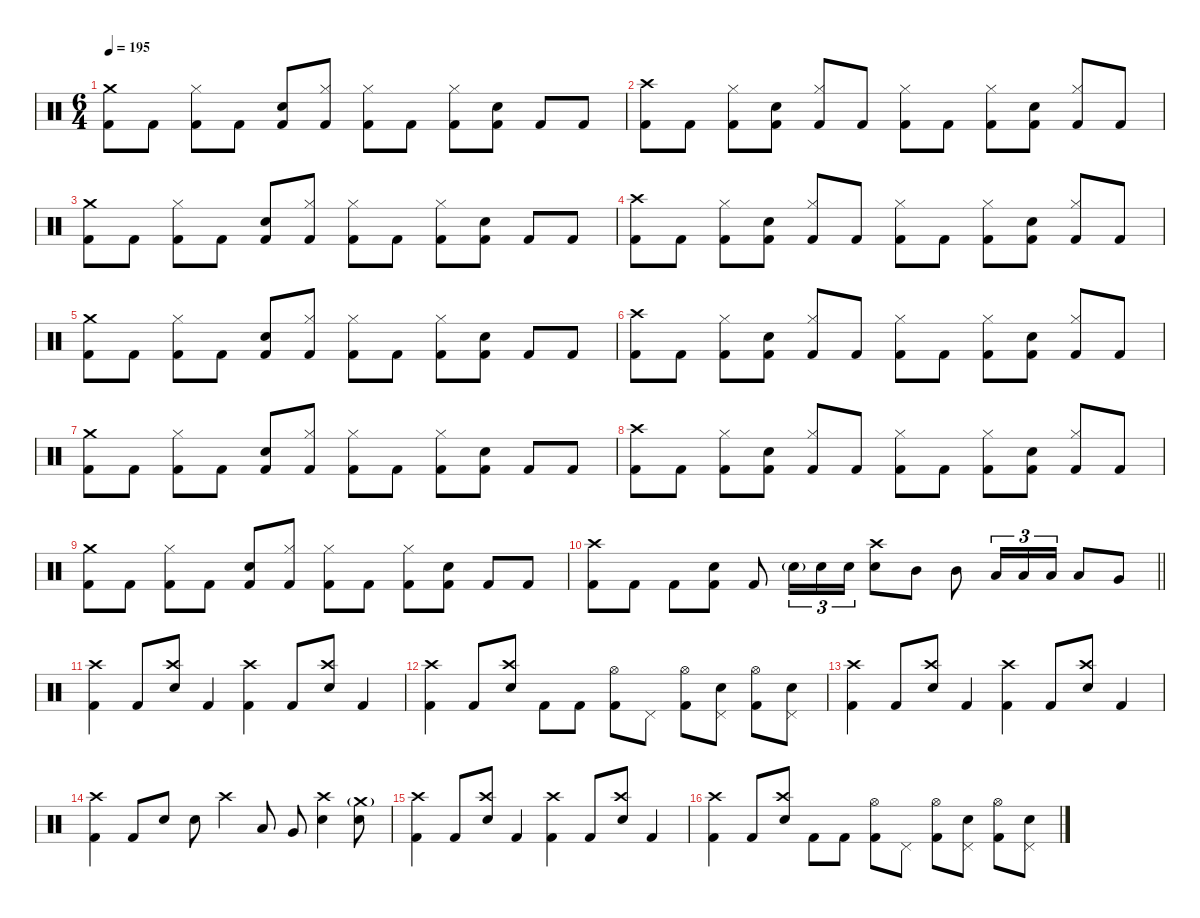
\defaultSystemsLayout 4
\hideDynamics
\bracketExtendMode nobrackets
\singleTrackTrackNamePolicy hidden
\multiTrackTrackNamePolicy hidden
\firstSystemTrackNameMode fullname
\firstSystemTrackNameOrientation horizontal
\otherSystemsTrackNameOrientation horizontal
\track ("Drums" "drm.") {instrument percussion}
\staff {score}
\articulation defaults
\ts (6 4)
\tempo 195
\clef neutral
\ks c
("Crash medium (hit)" "Kick (hit) 2").8{dy f beam Down} "Kick (hit) 2".8{beam Down} ("Hi-Hat (closed)" "Kick (hit) 2").8{beam Down} "Kick (hit) 2".8{beam Up} ("Snare (hit) 2" "Kick (hit) 2").8{beam Up} ("Hi-Hat (closed)" "Kick (hit) 2").8{beam Up} ("Hi-Hat (closed)" "Kick (hit) 2").8{beam Down} "Kick (hit) 2".8{beam Down} ("Hi-Hat (closed)" "Kick (hit) 2").8{beam Down} ("Snare (hit) 2" "Kick (hit) 2").8{beam Up} "Kick (hit) 2".8{beam Up} "Kick (hit) 2".8{beam Up} |
("Crash high (hit)" "Kick (hit) 2").8{beam Down} "Kick (hit) 2".8{beam Down} ("Hi-Hat (closed)" "Kick (hit) 2").8{beam Down} ("Snare (hit) 2" "Kick (hit) 2").8{beam Up} ("Hi-Hat (closed)" "Kick (hit) 2").8{beam Up} "Kick (hit) 2".8{beam Up} ("Hi-Hat (closed)" "Kick (hit) 2").8{beam Down} "Kick (hit) 2".8{beam Down} ("Hi-Hat (closed)" "Kick (hit) 2").8{beam Down} ("Snare (hit) 2" "Kick (hit) 2").8{beam Up} ("Hi-Hat (closed)" "Kick (hit) 2").8{beam Up} "Kick (hit) 2".8{beam Up} |
("Crash medium (hit)" "Kick (hit) 2").8{beam Down} "Kick (hit) 2".8{beam Down} ("Hi-Hat (closed)" "Kick (hit) 2").8{beam Down} "Kick (hit) 2".8{beam Up} ("Snare (hit) 2" "Kick (hit) 2").8{beam Up} ("Hi-Hat (closed)" "Kick (hit) 2").8{beam Up} ("Hi-Hat (closed)" "Kick (hit) 2").8{beam Down} "Kick (hit) 2".8{beam Down} ("Hi-Hat (closed)" "Kick (hit) 2").8{beam Down} ("Snare (hit) 2" "Kick (hit) 2").8{beam Up} "Kick (hit) 2".8{beam Up} "Kick (hit) 2".8{beam Up} |
("Crash high (hit)" "Kick (hit) 2").8{beam Down} "Kick (hit) 2".8{beam Down} ("Hi-Hat (closed)" "Kick (hit) 2").8{beam Down} ("Snare (hit) 2" "Kick (hit) 2").8{beam Up} ("Hi-Hat (closed)" "Kick (hit) 2").8{beam Up} "Kick (hit) 2".8{beam Up} ("Hi-Hat (closed)" "Kick (hit) 2").8{beam Down} "Kick (hit) 2".8{beam Down} ("Hi-Hat (closed)" "Kick (hit) 2").8{beam Down} ("Snare (hit) 2" "Kick (hit) 2").8{beam Up} ("Hi-Hat (closed)" "Kick (hit) 2").8{beam Up} "Kick (hit) 2".8{beam Up} |
("Crash medium (hit)" "Kick (hit) 2").8{beam Down} "Kick (hit) 2".8{beam Down} ("Hi-Hat (closed)" "Kick (hit) 2").8{beam Down} "Kick (hit) 2".8{beam Up} ("Snare (hit) 2" "Kick (hit) 2").8{beam Up} ("Hi-Hat (closed)" "Kick (hit) 2").8{beam Up} ("Hi-Hat (closed)" "Kick (hit) 2").8{beam Down} "Kick (hit) 2".8{beam Down} ("Hi-Hat (closed)" "Kick (hit) 2").8{beam Down} ("Snare (hit) 2" "Kick (hit) 2").8{beam Up} "Kick (hit) 2".8{beam Up} "Kick (hit) 2".8{beam Up} |
("Crash high (hit)" "Kick (hit) 2").8{beam Down} "Kick (hit) 2".8{beam Down} ("Hi-Hat (closed)" "Kick (hit) 2").8{beam Down} ("Snare (hit) 2" "Kick (hit) 2").8{beam Up} ("Hi-Hat (closed)" "Kick (hit) 2").8{beam Up} "Kick (hit) 2".8{beam Up} ("Hi-Hat (closed)" "Kick (hit) 2").8{beam Down} "Kick (hit) 2".8{beam Down} ("Hi-Hat (closed)" "Kick (hit) 2").8{beam Down} ("Snare (hit) 2" "Kick (hit) 2").8{beam Up} ("Hi-Hat (closed)" "Kick (hit) 2").8{beam Up} "Kick (hit) 2".8{beam Up} |
("Crash medium (hit)" "Kick (hit) 2").8{beam Down} "Kick (hit) 2".8{beam Down} ("Hi-Hat (closed)" "Kick (hit) 2").8{beam Down} "Kick (hit) 2".8{beam Up} ("Snare (hit) 2" "Kick (hit) 2").8{beam Up} ("Hi-Hat (closed)" "Kick (hit) 2").8{beam Up} ("Hi-Hat (closed)" "Kick (hit) 2").8{beam Down} "Kick (hit) 2".8{beam Down} ("Hi-Hat (closed)" "Kick (hit) 2").8{beam Down} ("Snare (hit) 2" "Kick (hit) 2").8{beam Up} "Kick (hit) 2".8{beam Up} "Kick (hit) 2".8{beam Up} |
("Crash high (hit)" "Kick (hit) 2").8{beam Down} "Kick (hit) 2".8{beam Down} ("Hi-Hat (closed)" "Kick (hit) 2").8{beam Down} ("Snare (hit) 2" "Kick (hit) 2").8{beam Up} ("Hi-Hat (closed)" "Kick (hit) 2").8{beam Up} "Kick (hit) 2".8{beam Up} ("Hi-Hat (closed)" "Kick (hit) 2").8{beam Down} "Kick (hit) 2".8{beam Down} ("Hi-Hat (closed)" "Kick (hit) 2").8{beam Down} ("Snare (hit) 2" "Kick (hit) 2").8{beam Up} ("Hi-Hat (closed)" "Kick (hit) 2").8{beam Up} "Kick (hit) 2".8{beam Up} |
("Crash medium (hit)" "Kick (hit) 2").8{beam Down} "Kick (hit) 2".8{beam Down} ("Hi-Hat (closed)" "Kick (hit) 2").8{beam Down} "Kick (hit) 2".8{beam Up} ("Snare (hit) 2" "Kick (hit) 2").8{beam Up} ("Hi-Hat (closed)" "Kick (hit) 2").8{beam Up} ("Hi-Hat (closed)" "Kick (hit) 2").8{beam Down} "Kick (hit) 2".8{beam Down} ("Hi-Hat (closed)" "Kick (hit) 2").8{beam Down} ("Snare (hit) 2" "Kick (hit) 2").8{beam Up} "Kick (hit) 2".8{beam Up} "Kick (hit) 2".8{beam Up} |
\barLineRight lightlight
("Crash high (hit)" "Kick (hit) 2").8{beam Down} "Kick (hit) 2".8{beam Down} "Kick (hit) 2".8{beam Down} ("Snare (hit) 2" "Kick (hit) 2").8{beam Up} "Kick (hit) 2".8{beam Up} "Snare (hit) 2"{g}.16{tu (3 2) dy mf beam Down} "Snare (hit) 2".16{tu (3 2) dy f beam Down} "Snare (hit) 2".16{tu (3 2) beam Down} ("Crash high (hit)" "Snare (hit) 2").8{beam Down} "Mid Tom (hit)".8{beam Down} "Mid Tom (hit)".8{beam Down} "Low Tom (hit)".16{tu (3 2) beam Up} "Low Tom (hit)".16{tu (3 2) beam Up} "Low Tom (hit)".16{tu (3 2) beam Up} "Low Tom (hit)".8{beam Up} "Very Low Tom (hit)".8{beam Up} |
("Crash high (hit)" "Kick (hit) 2").4{beam Down} "Kick (hit) 2".8{beam Up} ("Crash high (hit)" "Snare (hit) 2").8{beam Down} "Kick (hit) 2".4{beam Up} ("Crash high (hit)" "Kick (hit) 2").4{beam Down} "Kick (hit) 2".8{beam Up} ("Crash high (hit)" "Snare (hit) 2").8{beam Down} "Kick (hit) 2".4{beam Up} |
("Crash high (hit)" "Kick (hit) 2").4{beam Down} "Kick (hit) 2".8{beam Up} ("Crash high (hit)" "Snare (hit) 2").8{beam Down} "Kick (hit) 2".8{beam Down} "Kick (hit) 2".8{beam Down} ("Hi-Hat (open)" "Kick (hit) 2").8{beam Down} "Pedal Hi-Hat (hit)".8{beam Down} ("Hi-Hat (open)" "Kick (hit) 2").8{beam Down} ("Pedal Hi-Hat (hit)" "Snare (hit) 2").8{beam Down} ("Hi-Hat (open)" "Kick (hit) 2").8{beam Down} ("Pedal Hi-Hat (hit)" "Snare (hit) 2").8{beam Down} |
("Crash high (hit)" "Kick (hit) 2").4{beam Down} "Kick (hit) 2".8{beam Up} ("Crash high (hit)" "Snare (hit) 2").8{beam Down} "Kick (hit) 2".4{beam Up} ("Crash high (hit)" "Kick (hit) 2").4{beam Down} "Kick (hit) 2".8{beam Up} ("Crash high (hit)" "Snare (hit) 2").8{beam Down} "Kick (hit) 2".4{beam Up} |
("Crash high (hit)" "Kick (hit) 2").4{beam Down} "Kick (hit) 2".8{beam Up} "Snare (hit) 2".8{beam Down} "Snare (hit) 2".8{beam Down} "Crash high (hit)".4{beam Down} "Low Tom (hit)".8{beam Up} "Very Low Tom (hit)".8{beam Up} ("Crash high (hit)" "Snare (hit) 2").4{beam Down} ("Crash medium (hit)"{g} "Snare (hit) 2").8{beam Down} |
("Crash high (hit)" "Kick (hit) 2").4{beam Down} "Kick (hit) 2".8{beam Up} ("Crash high (hit)" "Snare (hit) 2").8{beam Down} "Kick (hit) 2".4{beam Up} ("Crash high (hit)" "Kick (hit) 2").4{beam Down} "Kick (hit) 2".8{beam Up} ("Crash high (hit)" "Snare (hit) 2").8{beam Down} "Kick (hit) 2".4{beam Up} |
("Crash high (hit)" "Kick (hit) 2").4{beam Down} "Kick (hit) 2".8{beam Up} ("Crash high (hit)" "Snare (hit) 2").8{beam Down} "Kick (hit) 2".8{beam Down} "Kick (hit) 2".8{beam Down} ("Hi-Hat (open)" "Kick (hit) 2").8{beam Down} "Pedal Hi-Hat (hit)".8{beam Down} ("Hi-Hat (open)" "Kick (hit) 2").8{beam Down} ("Pedal Hi-Hat (hit)" "Snare (hit) 2").8{beam Down} ("Hi-Hat (open)" "Kick (hit) 2").8{beam Down} ("Pedal Hi-Hat (hit)" "Snare (hit) 2").8{beam Down}
